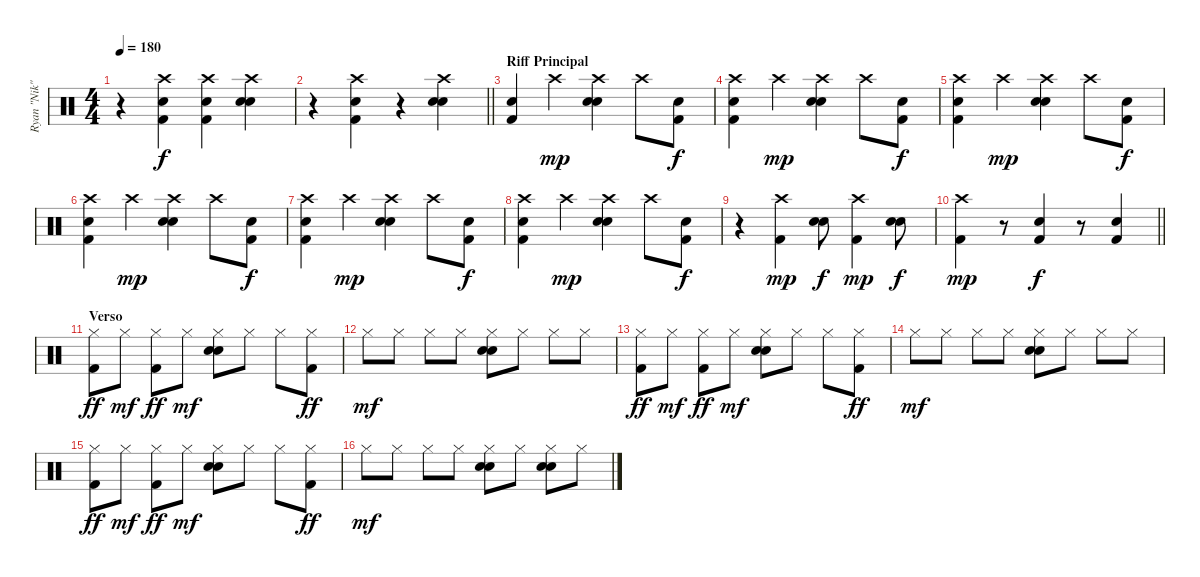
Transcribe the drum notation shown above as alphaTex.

\track ("Ryan \"Nik\"" "Ryan \"Nik\"") {instrument percussion}
\staff {score}
\articulation defaults
\ts (4 4)
\tempo 180
\clef neutral
\ks c
r.4{dy f} ("Crash high (hit)" "Electric Snare (hit)" "Kick (hit) 2").4 ("Crash high (hit)" "Electric Snare (hit)" "Kick (hit) 2").4 ("Crash high (hit)" "Electric Snare (hit)" "Electric Snare (hit)").4 |
\barLineRight lightlight
r.4 ("Crash high (hit)" "Electric Snare (hit)" "Kick (hit) 2").4 r.4 ("Crash high (hit)" "Electric Snare (hit)" "Electric Snare (hit)").4 |
\section ("" "Riff Principal")
("Electric Snare (hit)" "Kick (hit) 2").4 "Crash high (hit)".4{dy mp} ("Crash high (hit)" "Electric Snare (hit)" "Electric Snare (hit)").4 "Crash high (hit)".8 ("Kick (hit) 2" "Electric Snare (hit)").8{dy f} |
("Crash high (hit)" "Electric Snare (hit)" "Kick (hit) 2").4 "Crash high (hit)".4{dy mp} ("Crash high (hit)" "Electric Snare (hit)" "Electric Snare (hit)").4 "Crash high (hit)".8 ("Kick (hit) 2" "Electric Snare (hit)").8{dy f} |
("Crash high (hit)" "Electric Snare (hit)" "Kick (hit) 2").4 "Crash high (hit)".4{dy mp} ("Crash high (hit)" "Electric Snare (hit)" "Electric Snare (hit)").4 "Crash high (hit)".8 ("Kick (hit) 2" "Electric Snare (hit)").8{dy f} |
("Crash high (hit)" "Electric Snare (hit)" "Kick (hit) 2").4 "Crash high (hit)".4{dy mp} ("Crash high (hit)" "Electric Snare (hit)" "Electric Snare (hit)").4 "Crash high (hit)".8 ("Kick (hit) 2" "Electric Snare (hit)").8{dy f} |
("Crash high (hit)" "Electric Snare (hit)" "Kick (hit) 2").4 "Crash high (hit)".4{dy mp} ("Crash high (hit)" "Electric Snare (hit)" "Electric Snare (hit)").4 "Crash high (hit)".8 ("Kick (hit) 2" "Electric Snare (hit)").8{dy f} |
("Crash high (hit)" "Electric Snare (hit)" "Kick (hit) 2").4 "Crash high (hit)".4{dy mp} ("Crash high (hit)" "Electric Snare (hit)" "Electric Snare (hit)").4 "Crash high (hit)".8 ("Kick (hit) 2" "Electric Snare (hit)").8{dy f} |
r.4 ("Crash high (hit)" "Kick (hit) 2").4{dy mp} ("Electric Snare (hit)" "Electric Snare (hit)").8{dy f} ("Crash high (hit)" "Kick (hit) 2").4{dy mp} ("Electric Snare (hit)" "Electric Snare (hit)").8{dy f} |
\barLineRight lightlight
("Crash high (hit)" "Kick (hit) 2").4{dy mp} r.8 ("Electric Snare (hit)" "Kick (hit) 2").4{dy f} r.8 ("Electric Snare (hit)" "Kick (hit) 2").4 |
\section ("" "Verso")
("Hi-Hat (closed)" "Kick (hit) 2").8{dy ff} "Hi-Hat (closed)".8{dy mf} ("Hi-Hat (closed)" "Kick (hit) 2").8{dy ff} "Hi-Hat (closed)".8{dy mf} ("Hi-Hat (closed)" "Electric Snare (hit)" "Electric Snare (hit)").8 "Hi-Hat (closed)".8 "Hi-Hat (closed)".8 ("Hi-Hat (closed)" "Kick (hit) 2").8{dy ff} |
"Hi-Hat (closed)".8{dy mf} "Hi-Hat (closed)".8 "Hi-Hat (closed)".8 "Hi-Hat (closed)".8 ("Hi-Hat (closed)" "Electric Snare (hit)" "Electric Snare (hit)").8 "Hi-Hat (closed)".8 "Hi-Hat (closed)".8 "Hi-Hat (closed)".8 |
("Hi-Hat (closed)" "Kick (hit) 2").8{dy ff} "Hi-Hat (closed)".8{dy mf} ("Hi-Hat (closed)" "Kick (hit) 2").8{dy ff} "Hi-Hat (closed)".8{dy mf} ("Hi-Hat (closed)" "Electric Snare (hit)" "Electric Snare (hit)").8 "Hi-Hat (closed)".8 "Hi-Hat (closed)".8 ("Hi-Hat (closed)" "Kick (hit) 2").8{dy ff} |
"Hi-Hat (closed)".8{dy mf} "Hi-Hat (closed)".8 "Hi-Hat (closed)".8 "Hi-Hat (closed)".8 ("Hi-Hat (closed)" "Electric Snare (hit)" "Electric Snare (hit)").8 "Hi-Hat (closed)".8 "Hi-Hat (closed)".8 "Hi-Hat (closed)".8 |
("Hi-Hat (closed)" "Kick (hit) 2").8{dy ff} "Hi-Hat (closed)".8{dy mf} ("Hi-Hat (closed)" "Kick (hit) 2").8{dy ff} "Hi-Hat (closed)".8{dy mf} ("Hi-Hat (closed)" "Electric Snare (hit)" "Electric Snare (hit)").8 "Hi-Hat (closed)".8 "Hi-Hat (closed)".8 ("Hi-Hat (closed)" "Kick (hit) 2").8{dy ff} |
"Hi-Hat (closed)".8{dy mf} "Hi-Hat (closed)".8 "Hi-Hat (closed)".8 "Hi-Hat (closed)".8 ("Hi-Hat (closed)" "Electric Snare (hit)" "Electric Snare (hit)").8 "Hi-Hat (closed)".8 ("Hi-Hat (closed)" "Electric Snare (hit)" "Electric Snare (hit)").8 "Hi-Hat (closed)".8
